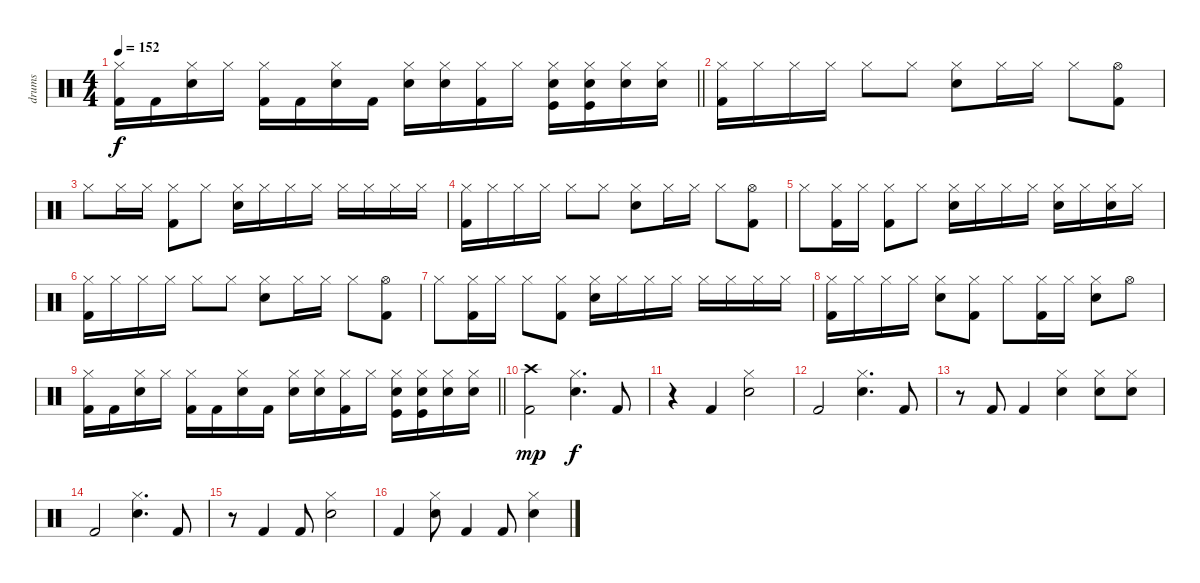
\track ("drums" "drums") {instrument percussion}
\staff {score}
\articulation defaults
\ts (4 4)
\tempo 152
\clef neutral
\barLineRight lightlight
\ks c
("Hi-Hat (closed)" "Kick (hit) 2").16{dy f} "Kick (hit) 2".16 ("Hi-Hat (closed)" "Snare (hit) 2").16 "Hi-Hat (closed)".16 ("Hi-Hat (closed)" "Kick (hit) 2").16 "Kick (hit) 2".16 ("Hi-Hat (closed)" "Snare (hit) 2").16 "Kick (hit) 2".16 ("Hi-Hat (closed)" "Snare (hit) 2").16 ("Hi-Hat (closed)" "Snare (hit) 2").16 ("Hi-Hat (closed)" "Kick (hit) 2").16 "Hi-Hat (closed)".16 ("Hi-Hat (closed)" "Snare (hit) 2" "Kick (hit)").16 ("Hi-Hat (closed)" "Snare (hit) 2" "Kick (hit)").16 ("Hi-Hat (closed)" "Snare (hit) 2").16 ("Hi-Hat (closed)" "Snare (hit) 2").16 |
("Hi-Hat (closed)" "Kick (hit) 2").16 "Hi-Hat (closed)".16 "Hi-Hat (closed)".16 "Hi-Hat (closed)".16 "Hi-Hat (closed)".8 "Hi-Hat (closed)".8 ("Snare (hit) 2" "Hi-Hat (closed)").8 "Hi-Hat (closed)".16 "Hi-Hat (closed)".16 "Hi-Hat (closed)".8 ("Hi-Hat (open)" "Kick (hit) 2").8 |
"Hi-Hat (closed)".8 "Hi-Hat (closed)".16 "Hi-Hat (closed)".16 ("Hi-Hat (closed)" "Kick (hit) 2").8 "Hi-Hat (closed)".8 ("Hi-Hat (closed)" "Snare (hit) 2").16 "Hi-Hat (closed)".16 "Hi-Hat (closed)".16 "Hi-Hat (closed)".16 "Hi-Hat (closed)".16 "Hi-Hat (closed)".16 "Hi-Hat (closed)".16 "Hi-Hat (closed)".16 |
("Hi-Hat (closed)" "Kick (hit) 2").16 "Hi-Hat (closed)".16 "Hi-Hat (closed)".16 "Hi-Hat (closed)".16 "Hi-Hat (closed)".8 "Hi-Hat (closed)".8 ("Snare (hit) 2" "Hi-Hat (closed)").8 "Hi-Hat (closed)".16 "Hi-Hat (closed)".16 "Hi-Hat (closed)".8 ("Hi-Hat (open)" "Kick (hit) 2").8 |
"Hi-Hat (closed)".8 ("Hi-Hat (closed)" "Kick (hit) 2").16 "Hi-Hat (closed)".16 ("Hi-Hat (closed)" "Kick (hit) 2").8 "Hi-Hat (closed)".8 ("Hi-Hat (closed)" "Snare (hit) 2").16 "Hi-Hat (closed)".16 "Hi-Hat (closed)".16 "Hi-Hat (closed)".16 ("Hi-Hat (closed)" "Snare (hit) 2").16 "Hi-Hat (closed)".16 ("Hi-Hat (closed)" "Snare (hit) 2").16 "Hi-Hat (closed)".16 |
("Hi-Hat (closed)" "Kick (hit) 2").16 "Hi-Hat (closed)".16 "Hi-Hat (closed)".16 "Hi-Hat (closed)".16 "Hi-Hat (closed)".8 "Hi-Hat (closed)".8 ("Snare (hit) 2" "Hi-Hat (closed)").8 "Hi-Hat (closed)".16 "Hi-Hat (closed)".16 "Hi-Hat (closed)".8 ("Hi-Hat (open)" "Kick (hit) 2").8 |
"Hi-Hat (closed)".8 ("Hi-Hat (closed)" "Kick (hit) 2").16 "Hi-Hat (closed)".16 "Hi-Hat (closed)".8 ("Hi-Hat (closed)" "Kick (hit) 2").8 ("Hi-Hat (closed)" "Snare (hit) 2").16 "Hi-Hat (closed)".16 "Hi-Hat (closed)".16 "Hi-Hat (closed)".16 "Hi-Hat (closed)".16 "Hi-Hat (closed)".16 "Hi-Hat (closed)".16 "Hi-Hat (closed)".16 |
("Hi-Hat (closed)" "Kick (hit) 2").16 "Hi-Hat (closed)".16 "Hi-Hat (closed)".16 "Hi-Hat (closed)".16 ("Hi-Hat (closed)" "Snare (hit) 2").8 ("Hi-Hat (closed)" "Kick (hit) 2").8 "Hi-Hat (closed)".8 ("Hi-Hat (closed)" "Kick (hit) 2").16 "Hi-Hat (closed)".16 ("Hi-Hat (closed)" "Snare (hit) 2").8 "Hi-Hat (open)".8 |
\barLineRight lightlight
("Hi-Hat (closed)" "Kick (hit) 2").16 "Kick (hit) 2".16 ("Hi-Hat (closed)" "Snare (hit) 2").16 "Hi-Hat (closed)".16 ("Hi-Hat (closed)" "Kick (hit) 2").16 "Kick (hit) 2".16 ("Hi-Hat (closed)" "Snare (hit) 2").16 "Kick (hit) 2".16 ("Hi-Hat (closed)" "Snare (hit) 2").16 ("Hi-Hat (closed)" "Snare (hit) 2").16 ("Hi-Hat (closed)" "Kick (hit) 2").16 "Hi-Hat (closed)".16 ("Hi-Hat (closed)" "Snare (hit) 2" "Kick (hit)").16 ("Hi-Hat (closed)" "Snare (hit) 2" "Kick (hit)").16 ("Hi-Hat (closed)" "Snare (hit) 2").16 ("Hi-Hat (closed)" "Snare (hit) 2").16 |
("Crash high (hit)" "Kick (hit) 2").2{dy mp} ("Snare (hit) 2" "Hi-Hat (closed)").4{d dy f} "Kick (hit) 2".8 |
r.4 "Kick (hit) 2".4 ("Hi-Hat (closed)" "Snare (hit) 2").2 |
"Kick (hit) 2".2 ("Snare (hit) 2" "Hi-Hat (closed)").4{d} "Kick (hit) 2".8 |
r.8 "Kick (hit) 2".8 "Kick (hit) 2".4 ("Hi-Hat (closed)" "Snare (hit) 2").4 ("Hi-Hat (closed)" "Snare (hit) 2").8 ("Hi-Hat (closed)" "Snare (hit) 2").8 |
"Kick (hit) 2".2 ("Snare (hit) 2" "Hi-Hat (closed)").4{d} "Kick (hit) 2".8 |
r.8 "Kick (hit) 2".4 "Kick (hit) 2".8 ("Hi-Hat (closed)" "Snare (hit) 2").2 |
"Kick (hit) 2".4 ("Hi-Hat (closed)" "Snare (hit) 2").8 "Kick (hit) 2".4 "Kick (hit) 2".8 ("Hi-Hat (closed)" "Snare (hit) 2").4
